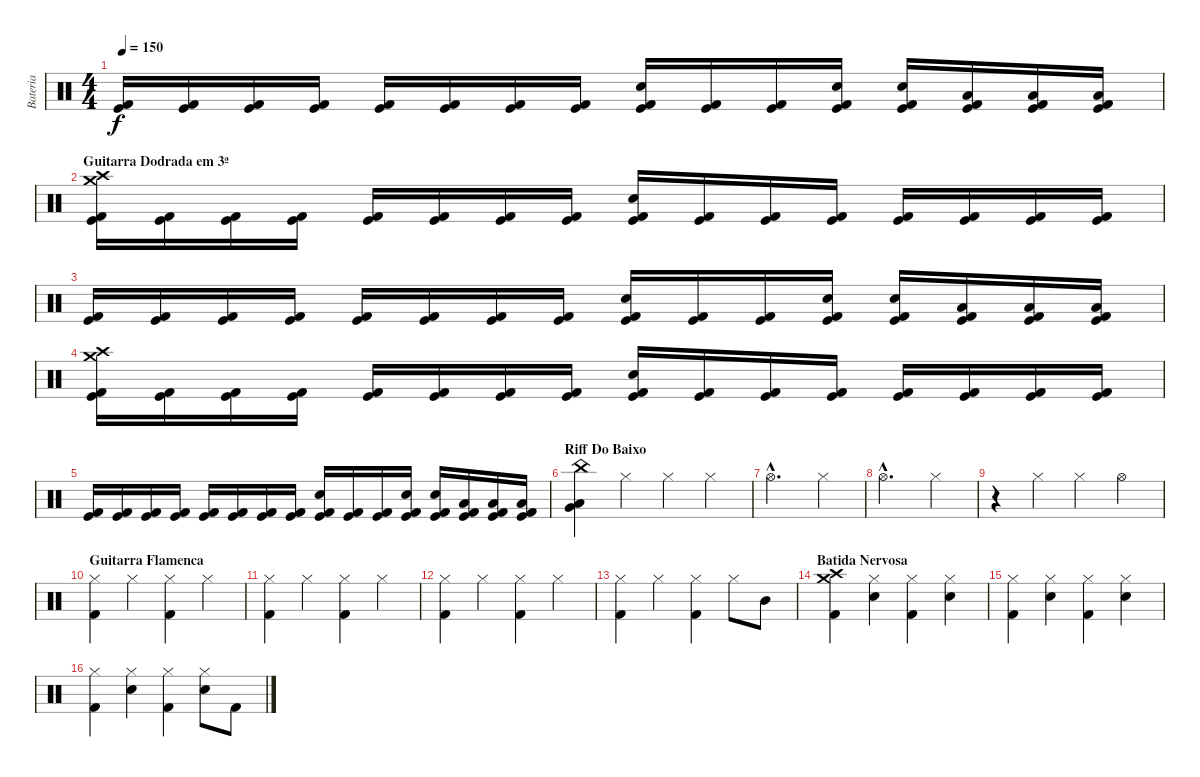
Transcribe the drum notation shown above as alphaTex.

\track ("Bateria" "Bateria") {instrument percussion}
\staff {score}
\articulation defaults
\ts (4 4)
\tempo 150
\clef neutral
\ks c
("Kick (hit) 2" "Kick (hit)").16{dy f} ("Kick (hit) 2" "Kick (hit)").16 ("Kick (hit) 2" "Kick (hit)").16 ("Kick (hit) 2" "Kick (hit)").16 ("Kick (hit) 2" "Kick (hit)").16 ("Kick (hit) 2" "Kick (hit)").16 ("Kick (hit) 2" "Kick (hit)").16 ("Kick (hit) 2" "Kick (hit)").16 ("Kick (hit) 2" "Kick (hit)" "Electric Snare (hit)").16 ("Kick (hit) 2" "Kick (hit)").16 ("Kick (hit) 2" "Kick (hit)").16 ("Kick (hit) 2" "Kick (hit)" "Electric Snare (hit)").16 ("Kick (hit) 2" "Kick (hit)" "Electric Snare (hit)").16 ("Kick (hit) 2" "Kick (hit)" "Low Tom (hit)").16 ("Kick (hit) 2" "Kick (hit)" "Low Tom (hit)").16 ("Kick (hit) 2" "Kick (hit)" "Low Tom (hit)").16 |
\section ("" "Guitarra Dodrada em 3ª")
("Kick (hit) 2" "Kick (hit)" "Crash medium (hit)" "Crash high (hit)").16 ("Kick (hit) 2" "Kick (hit)").16 ("Kick (hit) 2" "Kick (hit)").16 ("Kick (hit) 2" "Kick (hit)").16 ("Kick (hit) 2" "Kick (hit)").16 ("Kick (hit) 2" "Kick (hit)").16 ("Kick (hit) 2" "Kick (hit)").16 ("Kick (hit) 2" "Kick (hit)").16 ("Kick (hit) 2" "Kick (hit)" "Electric Snare (hit)").16 ("Kick (hit) 2" "Kick (hit)").16 ("Kick (hit) 2" "Kick (hit)").16 ("Kick (hit) 2" "Kick (hit)").16 ("Kick (hit) 2" "Kick (hit)").16 ("Kick (hit) 2" "Kick (hit)").16 ("Kick (hit) 2" "Kick (hit)").16 ("Kick (hit) 2" "Kick (hit)").16 |
("Kick (hit) 2" "Kick (hit)").16 ("Kick (hit) 2" "Kick (hit)").16 ("Kick (hit) 2" "Kick (hit)").16 ("Kick (hit) 2" "Kick (hit)").16 ("Kick (hit) 2" "Kick (hit)").16 ("Kick (hit) 2" "Kick (hit)").16 ("Kick (hit) 2" "Kick (hit)").16 ("Kick (hit) 2" "Kick (hit)").16 ("Kick (hit) 2" "Kick (hit)" "Electric Snare (hit)").16 ("Kick (hit) 2" "Kick (hit)").16 ("Kick (hit) 2" "Kick (hit)").16 ("Kick (hit) 2" "Kick (hit)" "Electric Snare (hit)").16 ("Kick (hit) 2" "Kick (hit)" "Electric Snare (hit)").16 ("Kick (hit) 2" "Kick (hit)" "Low Tom (hit)").16 ("Kick (hit) 2" "Kick (hit)" "Low Tom (hit)").16 ("Kick (hit) 2" "Kick (hit)" "Low Tom (hit)").16 |
("Kick (hit) 2" "Kick (hit)" "Crash medium (hit)" "Crash high (hit)").16 ("Kick (hit) 2" "Kick (hit)").16 ("Kick (hit) 2" "Kick (hit)").16 ("Kick (hit) 2" "Kick (hit)").16 ("Kick (hit) 2" "Kick (hit)").16 ("Kick (hit) 2" "Kick (hit)").16 ("Kick (hit) 2" "Kick (hit)").16 ("Kick (hit) 2" "Kick (hit)").16 ("Kick (hit) 2" "Kick (hit)" "Electric Snare (hit)").16 ("Kick (hit) 2" "Kick (hit)").16 ("Kick (hit) 2" "Kick (hit)").16 ("Kick (hit) 2" "Kick (hit)").16 ("Kick (hit) 2" "Kick (hit)").16 ("Kick (hit) 2" "Kick (hit)").16 ("Kick (hit) 2" "Kick (hit)").16 ("Kick (hit) 2" "Kick (hit)").16 |
("Kick (hit) 2" "Kick (hit)").16 ("Kick (hit) 2" "Kick (hit)").16 ("Kick (hit) 2" "Kick (hit)").16 ("Kick (hit) 2" "Kick (hit)").16 ("Kick (hit) 2" "Kick (hit)").16 ("Kick (hit) 2" "Kick (hit)").16 ("Kick (hit) 2" "Kick (hit)").16 ("Kick (hit) 2" "Kick (hit)").16 ("Kick (hit) 2" "Kick (hit)" "Electric Snare (hit)").16 ("Kick (hit) 2" "Kick (hit)").16 ("Kick (hit) 2" "Kick (hit)").16 ("Kick (hit) 2" "Kick (hit)" "Electric Snare (hit)").16 ("Kick (hit) 2" "Kick (hit)" "Electric Snare (hit)").16 ("Kick (hit) 2" "Kick (hit)" "Low Tom (hit)").16 ("Kick (hit) 2" "Kick (hit)" "Low Tom (hit)").16 ("Kick (hit) 2" "Kick (hit)" "Low Tom (hit)").16 |
\section ("" "Riff Do Baixo")
("Low Floor Tom (hit)" "Very Low Tom (hit)" "China (hit)").4 "Hi-Hat (closed)".4 "Hi-Hat (closed)".4 "Hi-Hat (closed)".4 |
"Hi-Hat (open)"{hac}.2{d} "Hi-Hat (closed)".4 |
"Hi-Hat (open)"{hac}.2{d} "Hi-Hat (closed)".4 |
r.4 "Hi-Hat (closed)".4 "Hi-Hat (closed)".4 "Hi-Hat (open)".4 |
\section ("" "Guitarra Flamenca")
("Kick (hit) 2" "Hi-Hat (closed)").4 "Hi-Hat (closed)".4 ("Kick (hit) 2" "Hi-Hat (closed)").4 "Hi-Hat (closed)".4 |
("Kick (hit) 2" "Hi-Hat (closed)").4 "Hi-Hat (closed)".4 ("Kick (hit) 2" "Hi-Hat (closed)").4 "Hi-Hat (closed)".4 |
("Kick (hit) 2" "Hi-Hat (closed)").4 "Hi-Hat (closed)".4 ("Kick (hit) 2" "Hi-Hat (closed)").4 "Hi-Hat (closed)".4 |
("Kick (hit) 2" "Hi-Hat (closed)").4 "Hi-Hat (closed)".4 ("Kick (hit) 2" "Hi-Hat (closed)").4 "Hi-Hat (closed)".8 "Mid Tom (hit)".8 |
\section ("" "Batida Nervosa")
("Kick (hit) 2" "Crash high (hit)" "Crash medium (hit)").4 ("Metronome (bell)" "Hi-Hat (closed)").4 ("Kick (hit) 2" "Hi-Hat (closed)").4 ("Metronome (bell)" "Hi-Hat (closed)").4 |
("Kick (hit) 2" "Hi-Hat (closed)").4 ("Metronome (bell)" "Hi-Hat (closed)").4 ("Kick (hit) 2" "Hi-Hat (closed)").4 ("Metronome (bell)" "Hi-Hat (closed)").4 |
("Kick (hit) 2" "Hi-Hat (closed)").4 ("Metronome (bell)" "Hi-Hat (closed)").4 ("Kick (hit) 2" "Hi-Hat (closed)").4 ("Metronome (bell)" "Hi-Hat (closed)").8 "Kick (hit) 2".8
